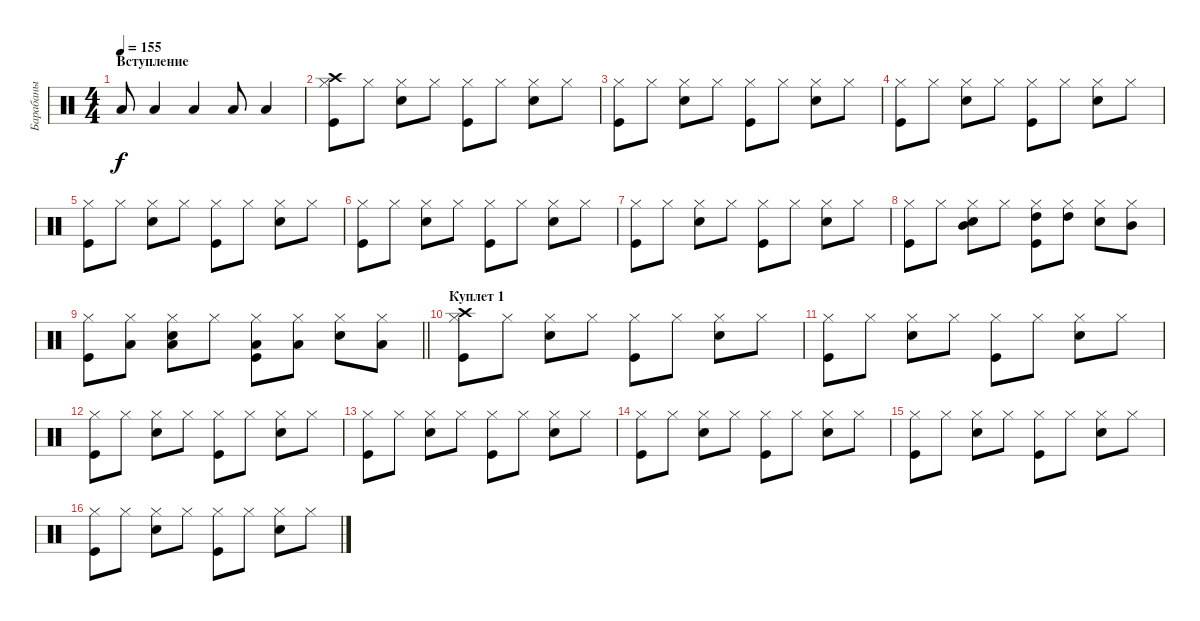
\track ("Барабаны" "Барабаны") {instrument percussion}
\staff {score}
\articulation defaults
\ts (4 4)
\section ("" "Вступление")
\tempo 155
\clef neutral
\ks c "Low Tom (hit)".8{dy f} "Low Tom (hit)".4 "Low Tom (hit)".4 "Low Tom (hit)".8 "Low Tom (hit)".4
|
("Kick (hit)" "Hi-Hat (closed)" "Crash high (hit)").8 "Hi-Hat (closed)".8 ("Snare (hit) 2" "Hi-Hat (closed)").8 "Hi-Hat (closed)".8 ("Kick (hit)" "Hi-Hat (closed)").8 "Hi-Hat (closed)".8 ("Snare (hit) 2" "Hi-Hat (closed)").8 "Hi-Hat (closed)".8 |
("Kick (hit)" "Hi-Hat (closed)").8 "Hi-Hat (closed)".8 ("Snare (hit) 2" "Hi-Hat (closed)").8 "Hi-Hat (closed)".8 ("Kick (hit)" "Hi-Hat (closed)").8 "Hi-Hat (closed)".8 ("Snare (hit) 2" "Hi-Hat (closed)").8 "Hi-Hat (closed)".8 |
("Kick (hit)" "Hi-Hat (closed)").8 "Hi-Hat (closed)".8 ("Snare (hit) 2" "Hi-Hat (closed)").8 "Hi-Hat (closed)".8 ("Kick (hit)" "Hi-Hat (closed)").8 "Hi-Hat (closed)".8 ("Snare (hit) 2" "Hi-Hat (closed)").8 "Hi-Hat (closed)".8 |
("Kick (hit)" "Hi-Hat (closed)").8 "Hi-Hat (closed)".8 ("Snare (hit) 2" "Hi-Hat (closed)").8 "Hi-Hat (closed)".8 ("Kick (hit)" "Hi-Hat (closed)").8 "Hi-Hat (closed)".8 ("Snare (hit) 2" "Hi-Hat (closed)").8 "Hi-Hat (closed)".8 |
("Kick (hit)" "Hi-Hat (closed)").8 "Hi-Hat (closed)".8 ("Snare (hit) 2" "Hi-Hat (closed)").8 "Hi-Hat (closed)".8 ("Kick (hit)" "Hi-Hat (closed)").8 "Hi-Hat (closed)".8 ("Snare (hit) 2" "Hi-Hat (closed)").8 "Hi-Hat (closed)".8 |
("Kick (hit)" "Hi-Hat (closed)").8 "Hi-Hat (closed)".8 ("Snare (hit) 2" "Hi-Hat (closed)").8 "Hi-Hat (closed)".8 ("Kick (hit)" "Hi-Hat (closed)").8 "Hi-Hat (closed)".8 ("Snare (hit) 2" "Hi-Hat (closed)").8 "Hi-Hat (closed)".8 |
("Kick (hit)" "Hi-Hat (closed)").8 "Hi-Hat (closed)".8 ("Snare (hit) 2" "Hi-Hat (closed)" "Mid Tom (hit)").8 "Hi-Hat (closed)".8 ("Kick (hit)" "Hi-Hat (closed)" "High Tom (hit)").8 ("Hi-Hat (closed)" "High Tom (hit)").8 ("Snare (hit) 2" "Hi-Hat (closed)").8 ("Hi-Hat (closed)" "Mid Tom (hit)").8 |
\barLineRight lightlight
("Kick (hit)" "Hi-Hat (closed)").8 ("Hi-Hat (closed)" "Low Tom (hit)").8 ("Snare (hit) 2" "Hi-Hat (closed)" "Low Tom (hit)").8 "Hi-Hat (closed)".8 ("Kick (hit)" "Hi-Hat (closed)" "Low Floor Tom (hit)").8 ("Hi-Hat (closed)" "Low Floor Tom (hit)").8 ("Snare (hit) 2" "Hi-Hat (closed)").8 ("Hi-Hat (closed)" "Low Floor Tom (hit)").8 |
\section ("" "Куплет 1")
("Kick (hit)" "Hi-Hat (closed)" "Crash high (hit)").8 "Hi-Hat (closed)".8 ("Snare (hit) 2" "Hi-Hat (closed)").8 "Hi-Hat (closed)".8 ("Kick (hit)" "Hi-Hat (closed)").8 "Hi-Hat (closed)".8 ("Snare (hit) 2" "Hi-Hat (closed)").8 "Hi-Hat (closed)".8 |
("Kick (hit)" "Hi-Hat (closed)").8 "Hi-Hat (closed)".8 ("Snare (hit) 2" "Hi-Hat (closed)").8 "Hi-Hat (closed)".8 ("Kick (hit)" "Hi-Hat (closed)").8 "Hi-Hat (closed)".8 ("Snare (hit) 2" "Hi-Hat (closed)").8 "Hi-Hat (closed)".8 |
("Kick (hit)" "Hi-Hat (closed)").8 "Hi-Hat (closed)".8 ("Snare (hit) 2" "Hi-Hat (closed)").8 "Hi-Hat (closed)".8 ("Kick (hit)" "Hi-Hat (closed)").8 "Hi-Hat (closed)".8 ("Snare (hit) 2" "Hi-Hat (closed)").8 "Hi-Hat (closed)".8 |
("Kick (hit)" "Hi-Hat (closed)").8 "Hi-Hat (closed)".8 ("Snare (hit) 2" "Hi-Hat (closed)").8 "Hi-Hat (closed)".8 ("Kick (hit)" "Hi-Hat (closed)").8 "Hi-Hat (closed)".8 ("Snare (hit) 2" "Hi-Hat (closed)").8 "Hi-Hat (closed)".8 |
("Kick (hit)" "Hi-Hat (closed)").8 "Hi-Hat (closed)".8 ("Snare (hit) 2" "Hi-Hat (closed)").8 "Hi-Hat (closed)".8 ("Kick (hit)" "Hi-Hat (closed)").8 "Hi-Hat (closed)".8 ("Snare (hit) 2" "Hi-Hat (closed)").8 "Hi-Hat (closed)".8 |
("Kick (hit)" "Hi-Hat (closed)").8 "Hi-Hat (closed)".8 ("Snare (hit) 2" "Hi-Hat (closed)").8 "Hi-Hat (closed)".8 ("Kick (hit)" "Hi-Hat (closed)").8 "Hi-Hat (closed)".8 ("Snare (hit) 2" "Hi-Hat (closed)").8 "Hi-Hat (closed)".8 |
("Kick (hit)" "Hi-Hat (closed)").8 "Hi-Hat (closed)".8 ("Snare (hit) 2" "Hi-Hat (closed)").8 "Hi-Hat (closed)".8 ("Kick (hit)" "Hi-Hat (closed)").8 "Hi-Hat (closed)".8 ("Snare (hit) 2" "Hi-Hat (closed)").8 "Hi-Hat (closed)".8
